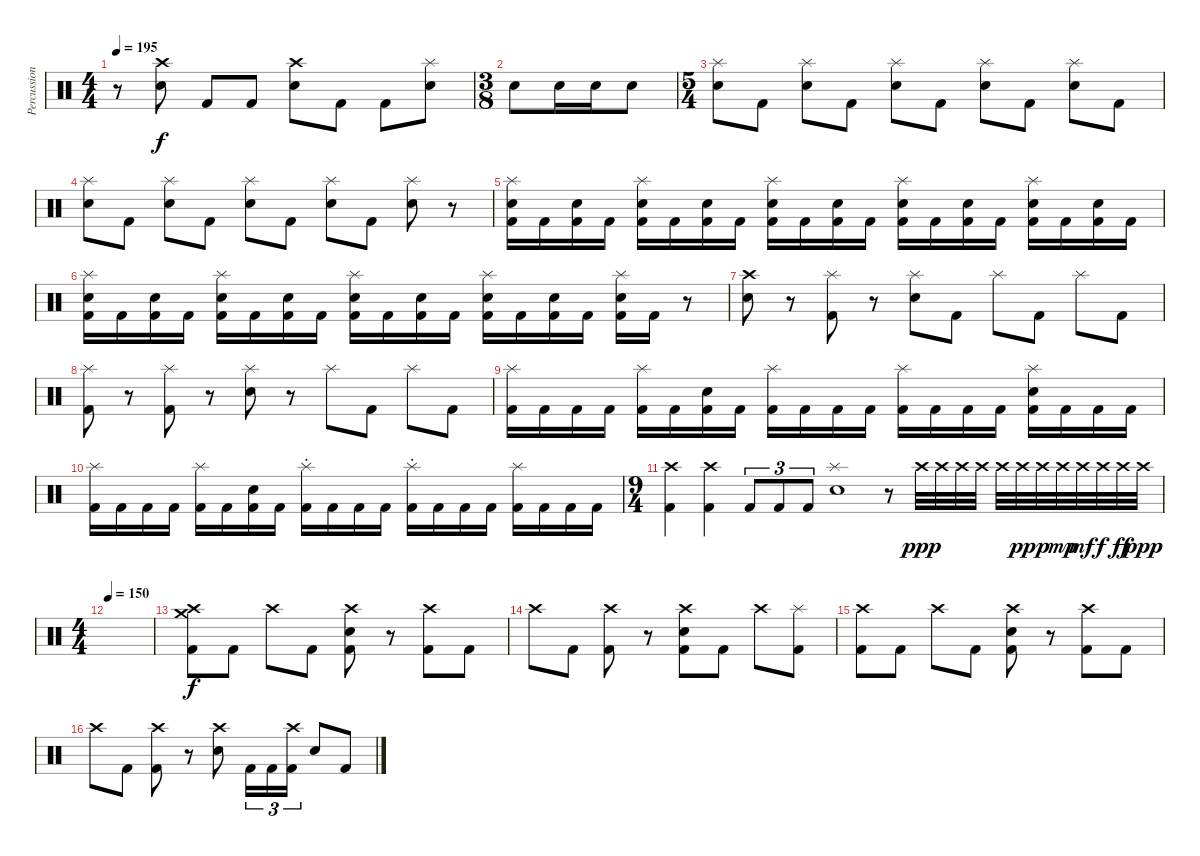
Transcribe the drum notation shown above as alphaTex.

\track ("Percussion" "Percussion") {instrument percussion}
\staff {score}
\articulation defaults
\ts (4 4)
\tempo 195
\clef neutral
\ks c
r.8{dy f} ("Crash high (hit)" "Electric Snare (hit)").8 "Kick (hit) 2".8 "Kick (hit) 2".8 ("Crash high (hit)" "Electric Snare (hit)").8 "Kick (hit) 2".8 "Kick (hit) 2".8 ("Splash (hit)" "Electric Snare (hit)").8 |
\ts (3 8)
"Electric Snare (hit)".8 "Electric Snare (hit)".16 "Electric Snare (hit)".16 "Electric Snare (hit)".8 |
\ts (5 4)
("Splash (hit)" "Electric Snare (hit)").8 "Kick (hit) 2".8 ("Splash (hit)" "Electric Snare (hit)").8 "Kick (hit) 2".8 ("Splash (hit)" "Electric Snare (hit)").8 "Kick (hit) 2".8 ("Splash (hit)" "Electric Snare (hit)").8 "Kick (hit) 2".8 ("Splash (hit)" "Electric Snare (hit)").8 "Kick (hit) 2".8 |
("Splash (hit)" "Electric Snare (hit)").8 "Kick (hit) 2".8 ("Splash (hit)" "Electric Snare (hit)").8 "Kick (hit) 2".8 ("Splash (hit)" "Electric Snare (hit)").8 "Kick (hit) 2".8 ("Splash (hit)" "Electric Snare (hit)").8 "Kick (hit) 2".8 ("Splash (hit)" "Electric Snare (hit)").8 r.8 |
("Splash (hit)" "Electric Snare (hit)" "Kick (hit) 2").16 "Kick (hit) 2".16 ("Electric Snare (hit)" "Kick (hit) 2").16 "Kick (hit) 2".16 ("Splash (hit)" "Electric Snare (hit)" "Kick (hit) 2").16 "Kick (hit) 2".16 ("Electric Snare (hit)" "Kick (hit) 2").16 "Kick (hit) 2".16 ("Splash (hit)" "Electric Snare (hit)" "Kick (hit) 2").16 "Kick (hit) 2".16 ("Electric Snare (hit)" "Kick (hit) 2").16 "Kick (hit) 2".16 ("Splash (hit)" "Electric Snare (hit)" "Kick (hit) 2").16 "Kick (hit) 2".16 ("Electric Snare (hit)" "Kick (hit) 2").16 "Kick (hit) 2".16 ("Splash (hit)" "Electric Snare (hit)" "Kick (hit) 2").16 "Kick (hit) 2".16 ("Electric Snare (hit)" "Kick (hit) 2").16 "Kick (hit) 2".16 |
("Splash (hit)" "Electric Snare (hit)" "Kick (hit) 2").16 "Kick (hit) 2".16 ("Electric Snare (hit)" "Kick (hit) 2").16 "Kick (hit) 2".16 ("Splash (hit)" "Electric Snare (hit)" "Kick (hit) 2").16 "Kick (hit) 2".16 ("Electric Snare (hit)" "Kick (hit) 2").16 "Kick (hit) 2".16 ("Splash (hit)" "Electric Snare (hit)" "Kick (hit) 2").16 "Kick (hit) 2".16 ("Electric Snare (hit)" "Kick (hit) 2").16 "Kick (hit) 2".16 ("Splash (hit)" "Electric Snare (hit)" "Kick (hit) 2").16 "Kick (hit) 2".16 ("Electric Snare (hit)" "Kick (hit) 2").16 "Kick (hit) 2".16 ("Splash (hit)" "Electric Snare (hit)" "Kick (hit) 2").16 "Kick (hit) 2".16 r.8 |
("Crash high (hit)" "Electric Snare (hit)").8 r.8 ("Splash (hit)" "Kick (hit) 2").8 r.8 ("Splash (hit)" "Electric Snare (hit)").8 "Kick (hit) 2".8 "Splash (hit)".8 "Kick (hit) 2".8 "Splash (hit)".8 "Kick (hit) 2".8 |
("Splash (hit)" "Kick (hit) 2").8 r.8 ("Splash (hit)" "Kick (hit) 2").8 r.8 ("Splash (hit)" "Electric Snare (hit)").8 r.8 "Splash (hit)".8 "Kick (hit) 2".8 "Splash (hit)".8 "Kick (hit) 2".8 |
("Splash (hit)" "Kick (hit) 2").16 "Kick (hit) 2".16 "Kick (hit) 2".16 "Kick (hit) 2".16 ("Splash (hit)" "Kick (hit) 2").16 "Kick (hit) 2".16 ("Electric Snare (hit)" "Kick (hit) 2").16 "Kick (hit) 2".16 ("Splash (hit)" "Kick (hit) 2").16 "Kick (hit) 2".16 "Kick (hit) 2".16 "Kick (hit) 2".16 ("Splash (hit)" "Kick (hit) 2").16 "Kick (hit) 2".16 "Kick (hit) 2".16 "Kick (hit) 2".16 ("Splash (hit)" "Electric Snare (hit)" "Kick (hit) 2").16 "Kick (hit) 2".16 "Kick (hit) 2".16 "Kick (hit) 2".16 |
("Splash (hit)" "Kick (hit) 2").16 "Kick (hit) 2".16 "Kick (hit) 2".16 "Kick (hit) 2".16 ("Splash (hit)" "Kick (hit) 2").16 "Kick (hit) 2".16 ("Electric Snare (hit)" "Kick (hit) 2").16 "Kick (hit) 2".16 ("Splash (hit)"{st} "Kick (hit) 2").16 "Kick (hit) 2".16 "Kick (hit) 2".16 "Kick (hit) 2".16 ("Splash (hit)"{st} "Kick (hit) 2").16 "Kick (hit) 2".16 "Kick (hit) 2".16 "Kick (hit) 2".16 ("Splash (hit)" "Kick (hit) 2").16 "Kick (hit) 2".16 "Kick (hit) 2".16 "Kick (hit) 2".16 |
\ts (9 4)
("Crash high (hit)" "Kick (hit) 2").4 ("Crash high (hit)" "Kick (hit) 2").4 "Kick (hit) 2".8{tu (3 2)} "Kick (hit) 2".8{tu (3 2)} "Kick (hit) 2".8{tu (3 2)} ("Splash (hit)" "Electric Snare (hit)").1 r.8 "Crash high (hit)".32{dy ppp} "Crash high (hit)".32 "Crash high (hit)".32 "Crash high (hit)".32 "Crash high (hit)".32 "Crash high (hit)".32{dy pp} "Crash high (hit)".32{dy p} "Crash high (hit)".32{dy mp} "Crash high (hit)".32{dy mf} "Crash high (hit)".32{dy f} "Crash high (hit)".32{dy ff} "Crash high (hit)".32{dy ppp} |
\ts (4 4)
\tempo 150
|
("Crash high (hit)" "Crash medium (hit)" "Kick (hit) 2").8{dy f} "Kick (hit) 2".8 "Crash high (hit)".8 "Kick (hit) 2".8 ("Crash high (hit)" "Electric Snare (hit)" "Kick (hit) 2").8 r.8 ("Crash high (hit)" "Kick (hit) 2").8 "Kick (hit) 2".8 |
"Crash high (hit)".8 "Kick (hit) 2".8 ("Crash high (hit)" "Kick (hit) 2").8 r.8 ("Crash high (hit)" "Electric Snare (hit)" "Kick (hit) 2").8 "Kick (hit) 2".8 "Crash high (hit)".8 ("Splash (hit)" "Kick (hit) 2").8 |
("Crash high (hit)" "Kick (hit) 2").8 "Kick (hit) 2".8 "Crash high (hit)".8 "Kick (hit) 2".8 ("Crash high (hit)" "Electric Snare (hit)" "Kick (hit) 2").8 r.8 ("Crash high (hit)" "Kick (hit) 2").8 "Kick (hit) 2".8 |
"Crash high (hit)".8 "Kick (hit) 2".8 ("Crash high (hit)" "Kick (hit) 2").8 r.8 ("Crash high (hit)" "Electric Snare (hit)").8 "Kick (hit) 2".16{tu (3 2)} "Kick (hit) 2".16{tu (3 2)} ("Crash high (hit)" "Kick (hit) 2").16{tu (3 2)} "Electric Snare (hit)".8 "Kick (hit) 2".8
